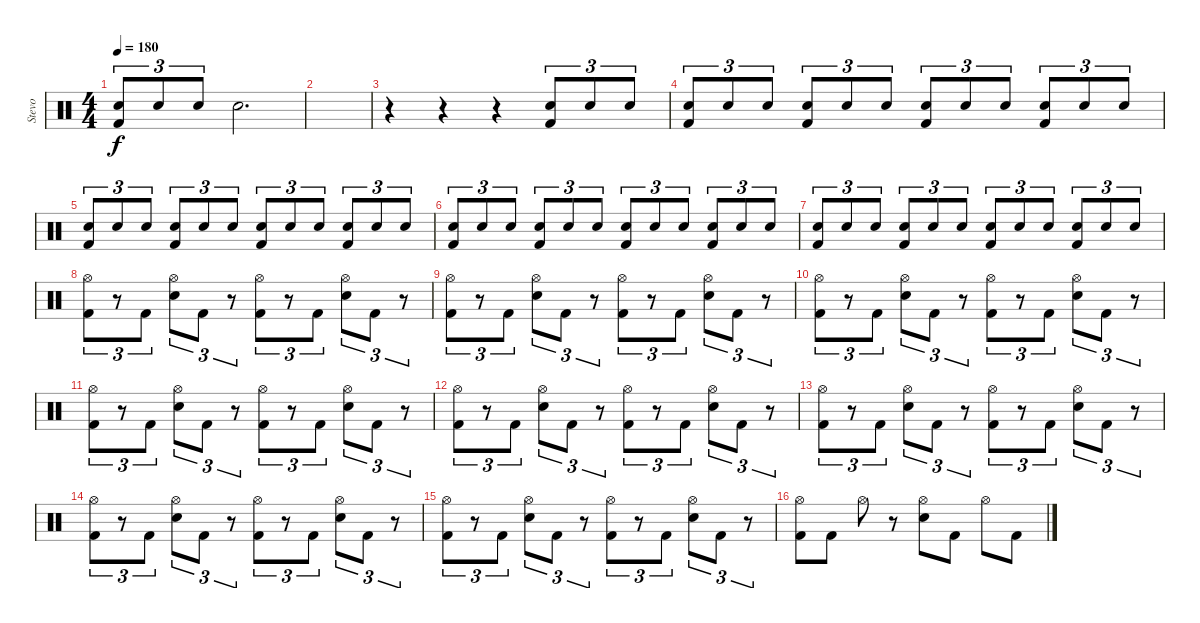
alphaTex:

\track ("Stevo" "Stevo") {instrument percussion}
\staff {score}
\articulation defaults
\ts (4 4)
\tempo 180
\clef neutral
\ks c
("Snare (hit) 2" "Kick (hit) 2").8{tu (3 2) dy f} "Snare (hit) 2".8{tu (3 2)} "Snare (hit) 2".8{tu (3 2)} "Snare (hit) 2".2{d} |
|
r.4 r.4 r.4 ("Snare (hit) 2" "Kick (hit) 2").8{tu (3 2)} "Snare (hit) 2".8{tu (3 2)} "Snare (hit) 2".8{tu (3 2)} |
("Snare (hit) 2" "Kick (hit) 2").8{tu (3 2)} "Snare (hit) 2".8{tu (3 2)} "Snare (hit) 2".8{tu (3 2)} ("Snare (hit) 2" "Kick (hit) 2").8{tu (3 2)} "Snare (hit) 2".8{tu (3 2)} "Snare (hit) 2".8{tu (3 2)} ("Snare (hit) 2" "Kick (hit) 2").8{tu (3 2)} "Snare (hit) 2".8{tu (3 2)} "Snare (hit) 2".8{tu (3 2)} ("Snare (hit) 2" "Kick (hit) 2").8{tu (3 2)} "Snare (hit) 2".8{tu (3 2)} "Snare (hit) 2".8{tu (3 2)} |
("Snare (hit) 2" "Kick (hit) 2").8{tu (3 2)} "Snare (hit) 2".8{tu (3 2)} "Snare (hit) 2".8{tu (3 2)} ("Snare (hit) 2" "Kick (hit) 2").8{tu (3 2)} "Snare (hit) 2".8{tu (3 2)} "Snare (hit) 2".8{tu (3 2)} ("Snare (hit) 2" "Kick (hit) 2").8{tu (3 2)} "Snare (hit) 2".8{tu (3 2)} "Snare (hit) 2".8{tu (3 2)} ("Snare (hit) 2" "Kick (hit) 2").8{tu (3 2)} "Snare (hit) 2".8{tu (3 2)} "Snare (hit) 2".8{tu (3 2)} |
("Snare (hit) 2" "Kick (hit) 2").8{tu (3 2)} "Snare (hit) 2".8{tu (3 2)} "Snare (hit) 2".8{tu (3 2)} ("Snare (hit) 2" "Kick (hit) 2").8{tu (3 2)} "Snare (hit) 2".8{tu (3 2)} "Snare (hit) 2".8{tu (3 2)} ("Snare (hit) 2" "Kick (hit) 2").8{tu (3 2)} "Snare (hit) 2".8{tu (3 2)} "Snare (hit) 2".8{tu (3 2)} ("Snare (hit) 2" "Kick (hit) 2").8{tu (3 2)} "Snare (hit) 2".8{tu (3 2)} "Snare (hit) 2".8{tu (3 2)} |
("Snare (hit) 2" "Kick (hit) 2").8{tu (3 2)} "Snare (hit) 2".8{tu (3 2)} "Snare (hit) 2".8{tu (3 2)} ("Snare (hit) 2" "Kick (hit) 2").8{tu (3 2)} "Snare (hit) 2".8{tu (3 2)} "Snare (hit) 2".8{tu (3 2)} ("Snare (hit) 2" "Kick (hit) 2").8{tu (3 2)} "Snare (hit) 2".8{tu (3 2)} "Snare (hit) 2".8{tu (3 2)} ("Snare (hit) 2" "Kick (hit) 2").8{tu (3 2)} "Snare (hit) 2".8{tu (3 2)} "Snare (hit) 2".8{tu (3 2)} |
("Hi-Hat (open)" "Kick (hit) 2").8{tu (3 2)} r.8{tu (3 2)} "Kick (hit) 2".8{tu (3 2)} ("Hi-Hat (open)" "Snare (hit) 2").8{tu (3 2)} "Kick (hit) 2".8{tu (3 2)} r.8{tu (3 2)} ("Hi-Hat (open)" "Kick (hit) 2").8{tu (3 2)} r.8{tu (3 2)} "Kick (hit) 2".8{tu (3 2)} ("Hi-Hat (open)" "Snare (hit) 2").8{tu (3 2)} "Kick (hit) 2".8{tu (3 2)} r.8{tu (3 2)} |
("Hi-Hat (open)" "Kick (hit) 2").8{tu (3 2)} r.8{tu (3 2)} "Kick (hit) 2".8{tu (3 2)} ("Hi-Hat (open)" "Snare (hit) 2").8{tu (3 2)} "Kick (hit) 2".8{tu (3 2)} r.8{tu (3 2)} ("Hi-Hat (open)" "Kick (hit) 2").8{tu (3 2)} r.8{tu (3 2)} "Kick (hit) 2".8{tu (3 2)} ("Hi-Hat (open)" "Snare (hit) 2").8{tu (3 2)} "Kick (hit) 2".8{tu (3 2)} r.8{tu (3 2)} |
("Hi-Hat (open)" "Kick (hit) 2").8{tu (3 2)} r.8{tu (3 2)} "Kick (hit) 2".8{tu (3 2)} ("Hi-Hat (open)" "Snare (hit) 2").8{tu (3 2)} "Kick (hit) 2".8{tu (3 2)} r.8{tu (3 2)} ("Hi-Hat (open)" "Kick (hit) 2").8{tu (3 2)} r.8{tu (3 2)} "Kick (hit) 2".8{tu (3 2)} ("Hi-Hat (open)" "Snare (hit) 2").8{tu (3 2)} "Kick (hit) 2".8{tu (3 2)} r.8{tu (3 2)} |
("Hi-Hat (open)" "Kick (hit) 2").8{tu (3 2)} r.8{tu (3 2)} "Kick (hit) 2".8{tu (3 2)} ("Hi-Hat (open)" "Snare (hit) 2").8{tu (3 2)} "Kick (hit) 2".8{tu (3 2)} r.8{tu (3 2)} ("Hi-Hat (open)" "Kick (hit) 2").8{tu (3 2)} r.8{tu (3 2)} "Kick (hit) 2".8{tu (3 2)} ("Hi-Hat (open)" "Snare (hit) 2").8{tu (3 2)} "Kick (hit) 2".8{tu (3 2)} r.8{tu (3 2)} |
("Hi-Hat (open)" "Kick (hit) 2").8{tu (3 2)} r.8{tu (3 2)} "Kick (hit) 2".8{tu (3 2)} ("Hi-Hat (open)" "Snare (hit) 2").8{tu (3 2)} "Kick (hit) 2".8{tu (3 2)} r.8{tu (3 2)} ("Hi-Hat (open)" "Kick (hit) 2").8{tu (3 2)} r.8{tu (3 2)} "Kick (hit) 2".8{tu (3 2)} ("Hi-Hat (open)" "Snare (hit) 2").8{tu (3 2)} "Kick (hit) 2".8{tu (3 2)} r.8{tu (3 2)} |
("Hi-Hat (open)" "Kick (hit) 2").8{tu (3 2)} r.8{tu (3 2)} "Kick (hit) 2".8{tu (3 2)} ("Hi-Hat (open)" "Snare (hit) 2").8{tu (3 2)} "Kick (hit) 2".8{tu (3 2)} r.8{tu (3 2)} ("Hi-Hat (open)" "Kick (hit) 2").8{tu (3 2)} r.8{tu (3 2)} "Kick (hit) 2".8{tu (3 2)} ("Hi-Hat (open)" "Snare (hit) 2").8{tu (3 2)} "Kick (hit) 2".8{tu (3 2)} r.8{tu (3 2)} |
("Hi-Hat (open)" "Kick (hit) 2").8{tu (3 2)} r.8{tu (3 2)} "Kick (hit) 2".8{tu (3 2)} ("Hi-Hat (open)" "Snare (hit) 2").8{tu (3 2)} "Kick (hit) 2".8{tu (3 2)} r.8{tu (3 2)} ("Hi-Hat (open)" "Kick (hit) 2").8{tu (3 2)} r.8{tu (3 2)} "Kick (hit) 2".8{tu (3 2)} ("Hi-Hat (open)" "Snare (hit) 2").8{tu (3 2)} "Kick (hit) 2".8{tu (3 2)} r.8{tu (3 2)} |
("Hi-Hat (open)" "Kick (hit) 2").8{tu (3 2)} r.8{tu (3 2)} "Kick (hit) 2".8{tu (3 2)} ("Hi-Hat (open)" "Snare (hit) 2").8{tu (3 2)} "Kick (hit) 2".8{tu (3 2)} r.8{tu (3 2)} ("Hi-Hat (open)" "Kick (hit) 2").8{tu (3 2)} r.8{tu (3 2)} "Kick (hit) 2".8{tu (3 2)} ("Hi-Hat (open)" "Snare (hit) 2").8{tu (3 2)} "Kick (hit) 2".8{tu (3 2)} r.8{tu (3 2)} |
("Hi-Hat (open)" "Kick (hit) 2").8 "Kick (hit) 2".8 "Hi-Hat (open)".8 r.8 ("Hi-Hat (open)" "Snare (hit) 2").8 "Kick (hit) 2".8 "Hi-Hat (open)".8 "Kick (hit) 2".8
